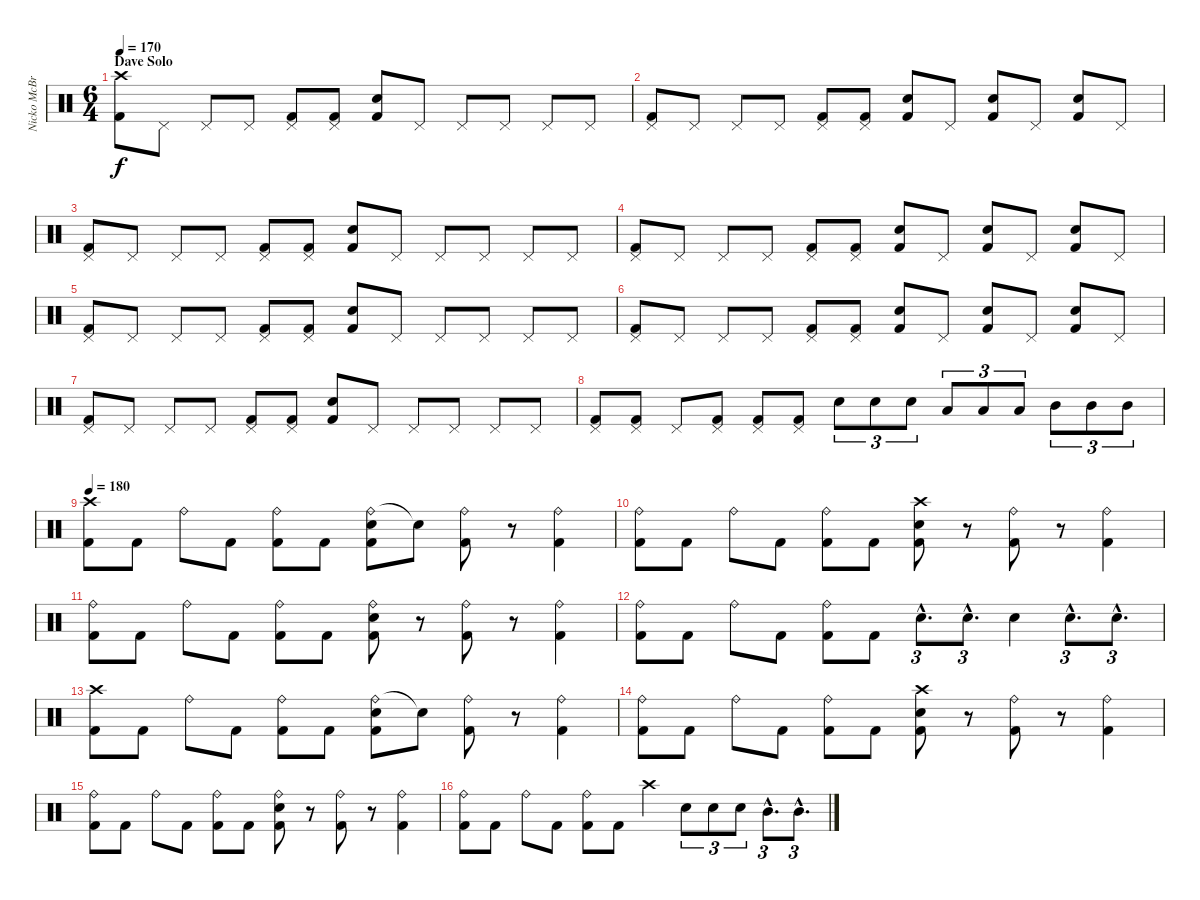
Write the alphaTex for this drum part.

\track ("Nicko McBrain" "Nicko McBr") {instrument percussion}
\staff {score}
\articulation defaults
\ts (6 4)
\section ("" "Dave Solo")
\tempo 170
\clef neutral
\ks c
("Crash high (hit)" "Kick (hit) 2").8{dy f} "Pedal Hi-Hat (hit)".8 "Pedal Hi-Hat (hit)".8 "Pedal Hi-Hat (hit)".8 ("Pedal Hi-Hat (hit)" "Kick (hit) 2").8 ("Pedal Hi-Hat (hit)" "Kick (hit) 2").8 ("Snare (hit) 2" "Kick (hit) 2").8 "Pedal Hi-Hat (hit)".8 "Pedal Hi-Hat (hit)".8 "Pedal Hi-Hat (hit)".8 "Pedal Hi-Hat (hit)".8 "Pedal Hi-Hat (hit)".8 |
("Pedal Hi-Hat (hit)" "Kick (hit) 2").8 "Pedal Hi-Hat (hit)".8 "Pedal Hi-Hat (hit)".8 "Pedal Hi-Hat (hit)".8 ("Pedal Hi-Hat (hit)" "Kick (hit) 2").8 ("Pedal Hi-Hat (hit)" "Kick (hit) 2").8 ("Snare (hit) 2" "Kick (hit) 2").8 "Pedal Hi-Hat (hit)".8 ("Snare (hit) 2" "Kick (hit) 2").8 "Pedal Hi-Hat (hit)".8 ("Snare (hit) 2" "Kick (hit) 2").8 "Pedal Hi-Hat (hit)".8 |
("Pedal Hi-Hat (hit)" "Kick (hit) 2").8 "Pedal Hi-Hat (hit)".8 "Pedal Hi-Hat (hit)".8 "Pedal Hi-Hat (hit)".8 ("Pedal Hi-Hat (hit)" "Kick (hit) 2").8 ("Pedal Hi-Hat (hit)" "Kick (hit) 2").8 ("Snare (hit) 2" "Kick (hit) 2").8 "Pedal Hi-Hat (hit)".8 "Pedal Hi-Hat (hit)".8 "Pedal Hi-Hat (hit)".8 "Pedal Hi-Hat (hit)".8 "Pedal Hi-Hat (hit)".8 |
("Pedal Hi-Hat (hit)" "Kick (hit) 2").8 "Pedal Hi-Hat (hit)".8 "Pedal Hi-Hat (hit)".8 "Pedal Hi-Hat (hit)".8 ("Pedal Hi-Hat (hit)" "Kick (hit) 2").8 ("Pedal Hi-Hat (hit)" "Kick (hit) 2").8 ("Snare (hit) 2" "Kick (hit) 2").8 "Pedal Hi-Hat (hit)".8 ("Snare (hit) 2" "Kick (hit) 2").8 "Pedal Hi-Hat (hit)".8 ("Snare (hit) 2" "Kick (hit) 2").8 "Pedal Hi-Hat (hit)".8 |
("Pedal Hi-Hat (hit)" "Kick (hit) 2").8 "Pedal Hi-Hat (hit)".8 "Pedal Hi-Hat (hit)".8 "Pedal Hi-Hat (hit)".8 ("Pedal Hi-Hat (hit)" "Kick (hit) 2").8 ("Pedal Hi-Hat (hit)" "Kick (hit) 2").8 ("Snare (hit) 2" "Kick (hit) 2").8 "Pedal Hi-Hat (hit)".8 "Pedal Hi-Hat (hit)".8 "Pedal Hi-Hat (hit)".8 "Pedal Hi-Hat (hit)".8 "Pedal Hi-Hat (hit)".8 |
("Pedal Hi-Hat (hit)" "Kick (hit) 2").8 "Pedal Hi-Hat (hit)".8 "Pedal Hi-Hat (hit)".8 "Pedal Hi-Hat (hit)".8 ("Pedal Hi-Hat (hit)" "Kick (hit) 2").8 ("Pedal Hi-Hat (hit)" "Kick (hit) 2").8 ("Snare (hit) 2" "Kick (hit) 2").8 "Pedal Hi-Hat (hit)".8 ("Snare (hit) 2" "Kick (hit) 2").8 "Pedal Hi-Hat (hit)".8 ("Snare (hit) 2" "Kick (hit) 2").8 "Pedal Hi-Hat (hit)".8 |
("Pedal Hi-Hat (hit)" "Kick (hit) 2").8 "Pedal Hi-Hat (hit)".8 "Pedal Hi-Hat (hit)".8 "Pedal Hi-Hat (hit)".8 ("Pedal Hi-Hat (hit)" "Kick (hit) 2").8 ("Pedal Hi-Hat (hit)" "Kick (hit) 2").8 ("Snare (hit) 2" "Kick (hit) 2").8 "Pedal Hi-Hat (hit)".8 "Pedal Hi-Hat (hit)".8 "Pedal Hi-Hat (hit)".8 "Pedal Hi-Hat (hit)".8 "Pedal Hi-Hat (hit)".8 |
("Pedal Hi-Hat (hit)" "Kick (hit) 2").8 ("Pedal Hi-Hat (hit)" "Kick (hit) 2").8 "Pedal Hi-Hat (hit)".8 ("Pedal Hi-Hat (hit)" "Kick (hit) 2").8 ("Pedal Hi-Hat (hit)" "Kick (hit) 2").8 ("Pedal Hi-Hat (hit)" "Kick (hit) 2").8 "Snare (hit) 2".8{tu (3 2)} "Snare (hit) 2".8{tu (3 2)} "Snare (hit) 2".8{tu (3 2)} "Low Tom (hit)".8{tu (3 2)} "Low Tom (hit)".8{tu (3 2)} "Low Tom (hit)".8{tu (3 2)} "Mid Tom (hit)".8{tu (3 2)} "Mid Tom (hit)".8{tu (3 2)} "Mid Tom (hit)".8{tu (3 2)} |
\tempo 170
\tempo 180
("Crash high (hit)" "Kick (hit) 2").8 "Kick (hit) 2".8 "Ride (bell)".8 "Kick (hit) 2".8 ("Ride (bell)" "Kick (hit) 2").8 "Kick (hit) 2".8 ("Ride (bell)" "Snare (hit) 2" "Kick (hit) 2").8 "Snare (hit) 2"{t}.8 ("Ride (bell)" "Kick (hit) 2").8 r.8 ("Ride (bell)" "Kick (hit) 2").4 |
("Ride (bell)" "Kick (hit) 2").8 "Kick (hit) 2".8 "Ride (bell)".8 "Kick (hit) 2".8 ("Ride (bell)" "Kick (hit) 2").8 "Kick (hit) 2".8 ("Crash high (hit)" "Snare (hit) 2" "Kick (hit) 2").8 r.8 ("Ride (bell)" "Kick (hit) 2").8 r.8 ("Ride (bell)" "Kick (hit) 2").4 |
("Ride (bell)" "Kick (hit) 2").8 "Kick (hit) 2".8 "Ride (bell)".8 "Kick (hit) 2".8 ("Ride (bell)" "Kick (hit) 2").8 "Kick (hit) 2".8 ("Snare (hit) 2" "Ride (bell)" "Kick (hit) 2").8 r.8 ("Ride (bell)" "Kick (hit) 2").8 r.8 ("Ride (bell)" "Kick (hit) 2").4 |
("Ride (bell)" "Kick (hit) 2").8 "Kick (hit) 2".8 "Ride (bell)".8 "Kick (hit) 2".8 ("Ride (bell)" "Kick (hit) 2").8 "Kick (hit) 2".8 "Snare (hit) 2"{hac}.8{d tu (3 2)} "Snare (hit) 2"{hac}.8{d tu (3 2)} "Snare (hit) 2".4 "Snare (hit) 2"{hac}.8{d tu (3 2)} "Snare (hit) 2"{hac}.8{d tu (3 2)} |
("Crash high (hit)" "Kick (hit) 2").8 "Kick (hit) 2".8 "Ride (bell)".8 "Kick (hit) 2".8 ("Ride (bell)" "Kick (hit) 2").8 "Kick (hit) 2".8 ("Ride (bell)" "Snare (hit) 2" "Kick (hit) 2").8 "Snare (hit) 2"{t}.8 ("Ride (bell)" "Kick (hit) 2").8 r.8 ("Ride (bell)" "Kick (hit) 2").4 |
("Ride (bell)" "Kick (hit) 2").8 "Kick (hit) 2".8 "Ride (bell)".8 "Kick (hit) 2".8 ("Ride (bell)" "Kick (hit) 2").8 "Kick (hit) 2".8 ("Crash high (hit)" "Snare (hit) 2" "Kick (hit) 2").8 r.8 ("Ride (bell)" "Kick (hit) 2").8 r.8 ("Ride (bell)" "Kick (hit) 2").4 |
("Ride (bell)" "Kick (hit) 2").8 "Kick (hit) 2".8 "Ride (bell)".8 "Kick (hit) 2".8 ("Ride (bell)" "Kick (hit) 2").8 "Kick (hit) 2".8 ("Snare (hit) 2" "Ride (bell)" "Kick (hit) 2").8 r.8 ("Ride (bell)" "Kick (hit) 2").8 r.8 ("Ride (bell)" "Kick (hit) 2").4 |
("Ride (bell)" "Kick (hit) 2").8 "Kick (hit) 2".8 "Ride (bell)".8 "Kick (hit) 2".8 ("Ride (bell)" "Kick (hit) 2").8 "Kick (hit) 2".8 "Crash high (hit)".4 "Snare (hit) 2".8{tu (3 2)} "Snare (hit) 2".8{tu (3 2)} "Snare (hit) 2".8{tu (3 2)} "Mid Tom (hit)"{hac}.8{d tu (3 2)} "Mid Tom (hit)"{hac}.8{d tu (3 2)}
